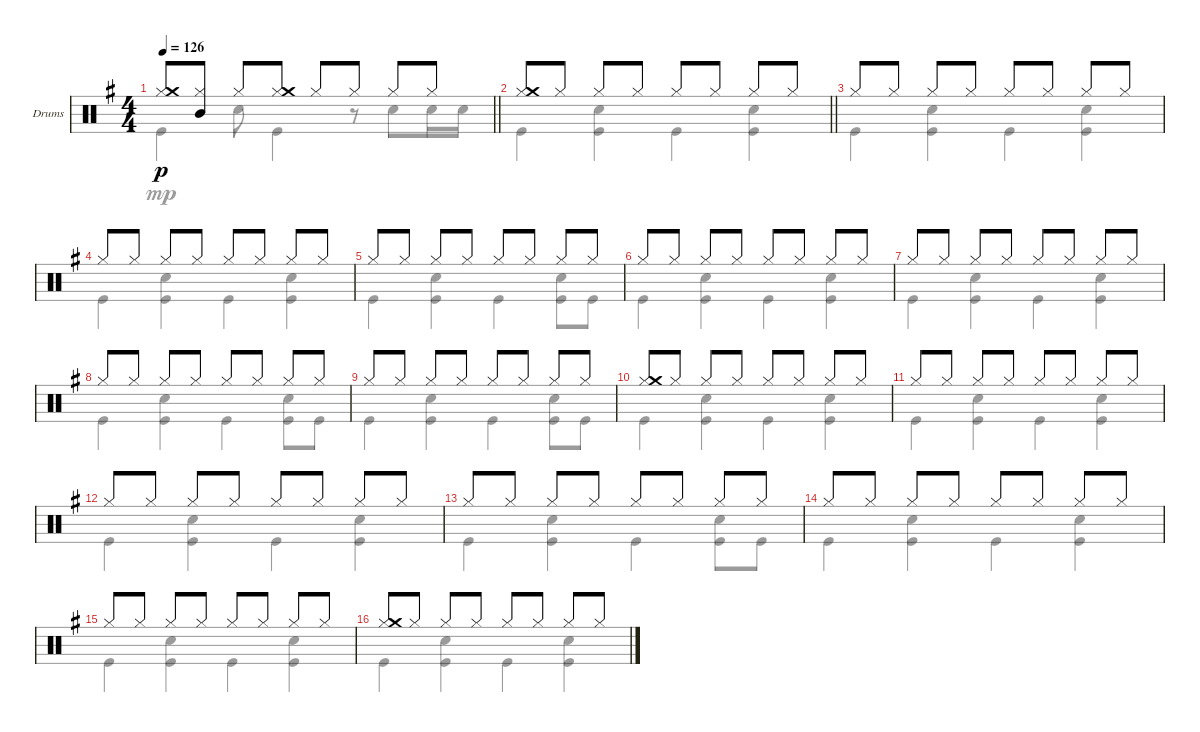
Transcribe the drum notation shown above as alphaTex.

\bracketExtendMode groupsimilarinstruments
\firstSystemTrackNameOrientation horizontal
\otherSystemsTrackNameOrientation horizontal
\track ("Ударные" "Drums") {instrument percussion}
\staff {score}
\articulation defaults
\voice
\ts (4 4)
\tempo 126
\clef neutral
\barLineRight lightlight
\ks eminor
("Hi-Hat (closed)" "Crash medium (hit)").8{dy p} ("Hi-Hat (closed)" "Mid Tom (hit)").8 "Hi-Hat (closed)".8 ("Hi-Hat (closed)" "Crash medium (hit)").8 "Hi-Hat (closed)".8 "Hi-Hat (closed)".8 "Hi-Hat (closed)".8 "Hi-Hat (closed)".8 |
\section ("" "")
\barLineRight lightlight
("Hi-Hat (closed)" "Crash medium (hit)").8 "Hi-Hat (closed)".8 "Hi-Hat (closed)".8 "Hi-Hat (closed)".8 "Hi-Hat (closed)".8 "Hi-Hat (closed)".8 "Hi-Hat (closed)".8 "Hi-Hat (closed)".8 |
\section ("" "")
"Hi-Hat (closed)".8 "Hi-Hat (closed)".8 "Hi-Hat (closed)".8 "Hi-Hat (closed)".8 "Hi-Hat (closed)".8 "Hi-Hat (closed)".8 "Hi-Hat (closed)".8 "Hi-Hat (closed)".8 |
"Hi-Hat (closed)".8 "Hi-Hat (closed)".8 "Hi-Hat (closed)".8 "Hi-Hat (closed)".8 "Hi-Hat (closed)".8 "Hi-Hat (closed)".8 "Hi-Hat (closed)".8 "Hi-Hat (closed)".8 |
"Hi-Hat (closed)".8 "Hi-Hat (closed)".8 "Hi-Hat (closed)".8 "Hi-Hat (closed)".8 "Hi-Hat (closed)".8 "Hi-Hat (closed)".8 "Hi-Hat (closed)".8 "Hi-Hat (closed)".8 |
"Hi-Hat (closed)".8 "Hi-Hat (closed)".8 "Hi-Hat (closed)".8 "Hi-Hat (closed)".8 "Hi-Hat (closed)".8 "Hi-Hat (closed)".8 "Hi-Hat (closed)".8 "Hi-Hat (closed)".8 |
"Hi-Hat (closed)".8 "Hi-Hat (closed)".8 "Hi-Hat (closed)".8 "Hi-Hat (closed)".8 "Hi-Hat (closed)".8 "Hi-Hat (closed)".8 "Hi-Hat (closed)".8 "Hi-Hat (closed)".8 |
"Hi-Hat (closed)".8 "Hi-Hat (closed)".8 "Hi-Hat (closed)".8 "Hi-Hat (closed)".8 "Hi-Hat (closed)".8 "Hi-Hat (closed)".8 "Hi-Hat (closed)".8 "Hi-Hat (closed)".8 |
"Hi-Hat (closed)".8 "Hi-Hat (closed)".8 "Hi-Hat (closed)".8 "Hi-Hat (closed)".8 "Hi-Hat (closed)".8 "Hi-Hat (closed)".8 "Hi-Hat (closed)".8 "Hi-Hat (closed)".8 |
("Hi-Hat (closed)" "Crash medium (hit)").8 "Hi-Hat (closed)".8 "Hi-Hat (closed)".8 "Hi-Hat (closed)".8 "Hi-Hat (closed)".8 "Hi-Hat (closed)".8 "Hi-Hat (closed)".8 "Hi-Hat (closed)".8 |
"Hi-Hat (closed)".8 "Hi-Hat (closed)".8 "Hi-Hat (closed)".8 "Hi-Hat (closed)".8 "Hi-Hat (closed)".8 "Hi-Hat (closed)".8 "Hi-Hat (closed)".8 "Hi-Hat (closed)".8 |
"Hi-Hat (closed)".8 "Hi-Hat (closed)".8 "Hi-Hat (closed)".8 "Hi-Hat (closed)".8 "Hi-Hat (closed)".8 "Hi-Hat (closed)".8 "Hi-Hat (closed)".8 "Hi-Hat (closed)".8 |
"Hi-Hat (closed)".8 "Hi-Hat (closed)".8 "Hi-Hat (closed)".8 "Hi-Hat (closed)".8 "Hi-Hat (closed)".8 "Hi-Hat (closed)".8 "Hi-Hat (closed)".8 "Hi-Hat (closed)".8 |
"Hi-Hat (closed)".8 "Hi-Hat (closed)".8 "Hi-Hat (closed)".8 "Hi-Hat (closed)".8 "Hi-Hat (closed)".8 "Hi-Hat (closed)".8 "Hi-Hat (closed)".8 "Hi-Hat (closed)".8 |
"Hi-Hat (closed)".8 "Hi-Hat (closed)".8 "Hi-Hat (closed)".8 "Hi-Hat (closed)".8 "Hi-Hat (closed)".8 "Hi-Hat (closed)".8 "Hi-Hat (closed)".8 "Hi-Hat (closed)".8 |
("Hi-Hat (closed)" "Crash medium (hit)").8 "Hi-Hat (closed)".8 "Hi-Hat (closed)".8 "Hi-Hat (closed)".8 "Hi-Hat (closed)".8 "Hi-Hat (closed)".8 "Hi-Hat (closed)".8 "Hi-Hat (closed)".8
\voice
\clef neutral
\ottava regular
\simile none
\barLineRight lightlight
\ks eminor "Kick (hit)".4{dy mp} "Snare (hit) 2".8 "Kick (hit)".4
r.8 "Snare (hit) 2".8 "Snare (hit) 2".16 "Snare (hit) 2".16 |
\barLineRight lightlight "Kick (hit)".4
("Snare (hit) 2" "Kick (hit)").4 "Kick (hit)".4 ("Snare (hit) 2" "Kick (hit)").4 |
"Kick (hit)".4 ("Snare (hit) 2" "Kick (hit)").4 "Kick (hit)".4 ("Snare (hit) 2" "Kick (hit)").4 |
"Kick (hit)".4 ("Snare (hit) 2" "Kick (hit)").4 "Kick (hit)".4 ("Snare (hit) 2" "Kick (hit)").4 |
"Kick (hit)".4 ("Snare (hit) 2" "Kick (hit)").4 "Kick (hit)".4 ("Snare (hit) 2" "Kick (hit)").8 "Kick (hit)".8 |
"Kick (hit)".4 ("Snare (hit) 2" "Kick (hit)").4 "Kick (hit)".4 ("Snare (hit) 2" "Kick (hit)").4 |
"Kick (hit)".4 ("Snare (hit) 2" "Kick (hit)").4 "Kick (hit)".4 ("Snare (hit) 2" "Kick (hit)").4 |
"Kick (hit)".4 ("Snare (hit) 2" "Kick (hit)").4 "Kick (hit)".4 ("Snare (hit) 2" "Kick (hit)").8 "Kick (hit)".8 |
"Kick (hit)".4 ("Snare (hit) 2" "Kick (hit)").4 "Kick (hit)".4 ("Snare (hit) 2" "Kick (hit)").8 "Kick (hit)".8 |
"Kick (hit)".4 ("Snare (hit) 2" "Kick (hit)").4 "Kick (hit)".4 ("Snare (hit) 2" "Kick (hit)").4 |
"Kick (hit)".4 ("Snare (hit) 2" "Kick (hit)").4 "Kick (hit)".4 ("Snare (hit) 2" "Kick (hit)").4 |
"Kick (hit)".4 ("Snare (hit) 2" "Kick (hit)").4 "Kick (hit)".4 ("Snare (hit) 2" "Kick (hit)").4 |
"Kick (hit)".4 ("Snare (hit) 2" "Kick (hit)").4 "Kick (hit)".4 ("Snare (hit) 2" "Kick (hit)").8 "Kick (hit)".8 |
"Kick (hit)".4 ("Snare (hit) 2" "Kick (hit)").4 "Kick (hit)".4 ("Snare (hit) 2" "Kick (hit)").4 |
"Kick (hit)".4 ("Snare (hit) 2" "Kick (hit)").4 "Kick (hit)".4 ("Snare (hit) 2" "Kick (hit)").4 |
"Kick (hit)".4 ("Snare (hit) 2" "Kick (hit)").4 "Kick (hit)".4 ("Snare (hit) 2" "Kick (hit)").4
